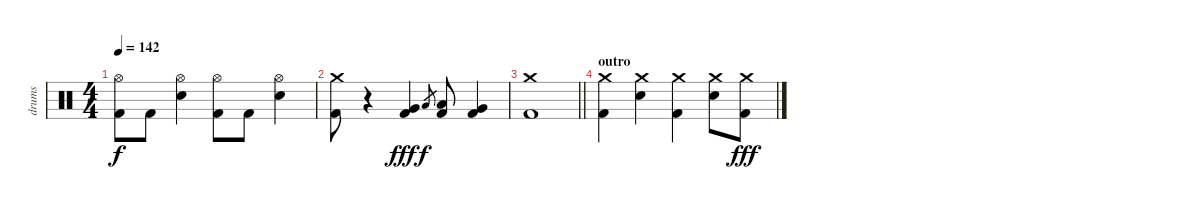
\track ("drums" "drums") {instrument percussion}
\staff {score}
\articulation defaults
\ts (4 4)
\tempo 142
\clef neutral
\ks c
("Hi-Hat (open)" "Kick (hit) 2").8{dy f} "Kick (hit) 2".8 ("Hi-Hat (open)" "Electric Snare (hit)").4 ("Hi-Hat (open)" "Kick (hit) 2").8 "Kick (hit) 2".8 ("Hi-Hat (open)" "Electric Snare (hit)").4 |
("Crash medium (hit)" "Kick (hit) 2").8 r.4 ("Very Low Tom (hit)" "Kick (hit) 2").4{dy fff} "Low Tom (hit)".8{gr dy f} ("Low Tom (hit)" "Kick (hit) 2").8 ("Very Low Tom (hit)" "Kick (hit) 2").4 |
\barLineRight lightlight
("Crash medium (hit)" "Kick (hit) 2").1 |
\section ("" "outro")
("Crash medium (hit)" "Kick (hit) 2").4{volume 12} ("Crash medium (hit)" "Electric Snare (hit)").4 ("Crash medium (hit)" "Kick (hit) 2").4 ("Crash medium (hit)" "Electric Snare (hit)").8 ("Crash medium (hit)" "Kick (hit) 2").8{dy fff}
